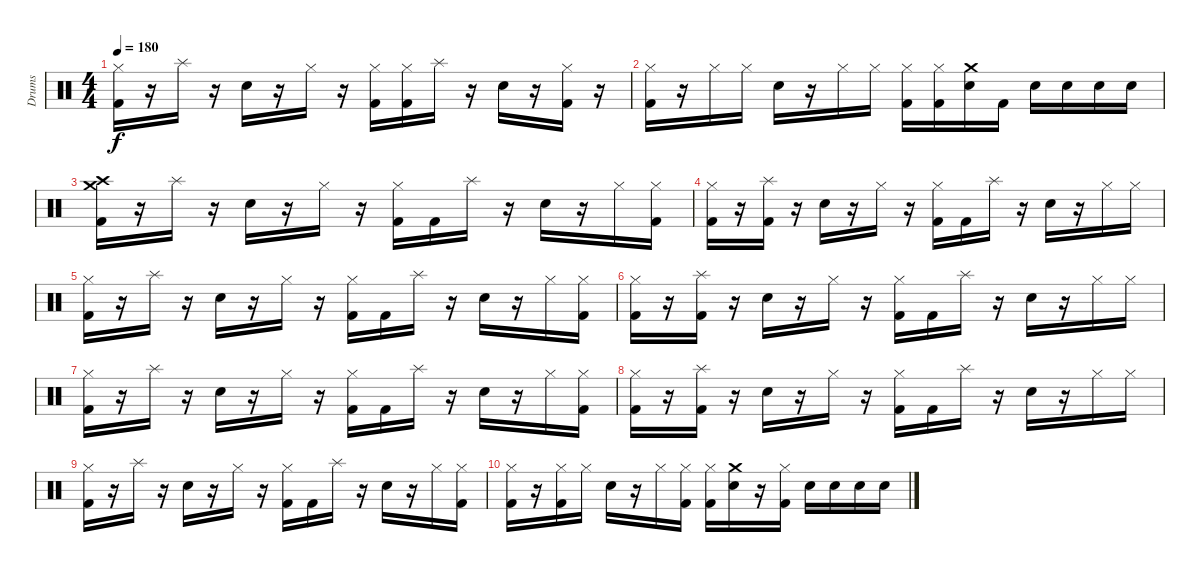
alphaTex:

\track ("Drums" "Drums") {instrument percussion}
\staff {score}
\articulation defaults
\ts (4 4)
\tempo 180
\clef neutral
\ks c
("Hi-Hat (closed)" "Kick (hit) 2").16{dy f} r.16 "Splash (hit)".16 r.16 "Snare (hit) 2".16 r.16 "Hi-Hat (closed)".16 r.16 ("Hi-Hat (closed)" "Kick (hit) 2").16 ("Hi-Hat (closed)" "Kick (hit) 2").16 "Splash (hit)".16 r.16 "Snare (hit) 2".16 r.16 ("Hi-Hat (closed)" "Kick (hit) 2").16 r.16 |
("Hi-Hat (closed)" "Kick (hit) 2").16 r.16 "Hi-Hat (closed)".16 "Hi-Hat (closed)".16 "Snare (hit) 2".16 r.16 "Hi-Hat (closed)".16 "Hi-Hat (closed)".16 ("Hi-Hat (closed)" "Kick (hit) 2").16 ("Hi-Hat (closed)" "Kick (hit) 2").16 ("Crash medium (hit)" "Snare (hit) 2").16 "Kick (hit) 2".16 "Snare (hit) 2".16 "Snare (hit) 2".16 "Snare (hit) 2".16 "Snare (hit) 2".16 |
("Crash medium (hit)" "Crash high (hit)" "Kick (hit) 2").16 r.16 "Splash (hit)".16 r.16 "Snare (hit) 2".16 r.16 "Hi-Hat (closed)".16 r.16 ("Hi-Hat (closed)" "Kick (hit) 2").16 "Kick (hit) 2".16 "Splash (hit)".16 r.16 "Snare (hit) 2".16 r.16 "Hi-Hat (closed)".16 ("Hi-Hat (closed)" "Kick (hit) 2").16 |
("Hi-Hat (closed)" "Kick (hit) 2").16 r.16 ("Splash (hit)" "Kick (hit) 2").16 r.16 "Snare (hit) 2".16 r.16 "Hi-Hat (closed)".16 r.16 ("Hi-Hat (closed)" "Kick (hit) 2").16 "Kick (hit) 2".16 "Splash (hit)".16 r.16 "Snare (hit) 2".16 r.16 "Hi-Hat (closed)".16 "Hi-Hat (closed)".16 |
("Hi-Hat (closed)" "Kick (hit) 2").16 r.16 "Splash (hit)".16 r.16 "Snare (hit) 2".16 r.16 "Hi-Hat (closed)".16 r.16 ("Hi-Hat (closed)" "Kick (hit) 2").16 "Kick (hit) 2".16 "Splash (hit)".16 r.16 "Snare (hit) 2".16 r.16 "Hi-Hat (closed)".16 ("Hi-Hat (closed)" "Kick (hit) 2").16 |
("Hi-Hat (closed)" "Kick (hit) 2").16 r.16 ("Splash (hit)" "Kick (hit) 2").16 r.16 "Snare (hit) 2".16 r.16 "Hi-Hat (closed)".16 r.16 ("Hi-Hat (closed)" "Kick (hit) 2").16 "Kick (hit) 2".16 "Splash (hit)".16 r.16 "Snare (hit) 2".16 r.16 "Hi-Hat (closed)".16 "Hi-Hat (closed)".16 |
("Hi-Hat (closed)" "Kick (hit) 2").16 r.16 "Splash (hit)".16 r.16 "Snare (hit) 2".16 r.16 "Hi-Hat (closed)".16 r.16 ("Hi-Hat (closed)" "Kick (hit) 2").16 "Kick (hit) 2".16 "Splash (hit)".16 r.16 "Snare (hit) 2".16 r.16 "Hi-Hat (closed)".16 ("Hi-Hat (closed)" "Kick (hit) 2").16 |
("Hi-Hat (closed)" "Kick (hit) 2").16 r.16 ("Splash (hit)" "Kick (hit) 2").16 r.16 "Snare (hit) 2".16 r.16 "Hi-Hat (closed)".16 r.16 ("Hi-Hat (closed)" "Kick (hit) 2").16 "Kick (hit) 2".16 "Splash (hit)".16 r.16 "Snare (hit) 2".16 r.16 "Hi-Hat (closed)".16 "Hi-Hat (closed)".16 |
("Hi-Hat (closed)" "Kick (hit) 2").16 r.16 "Splash (hit)".16 r.16 "Snare (hit) 2".16 r.16 "Hi-Hat (closed)".16 r.16 ("Hi-Hat (closed)" "Kick (hit) 2").16 "Kick (hit) 2".16 "Splash (hit)".16 r.16 "Snare (hit) 2".16 r.16 "Hi-Hat (closed)".16 ("Hi-Hat (closed)" "Kick (hit) 2").16 |
("Hi-Hat (closed)" "Kick (hit) 2").16 r.16 ("Hi-Hat (closed)" "Kick (hit) 2").16 "Hi-Hat (closed)".16 "Snare (hit) 2".16 r.16 "Hi-Hat (closed)".16 ("Hi-Hat (closed)" "Kick (hit) 2").16 ("Hi-Hat (closed)" "Kick (hit) 2").16 ("Crash medium (hit)" "Snare (hit) 2").16 r.16 ("Hi-Hat (closed)" "Kick (hit) 2").16 "Snare (hit) 2".16 "Snare (hit) 2".16 "Snare (hit) 2".16 "Snare (hit) 2".16
